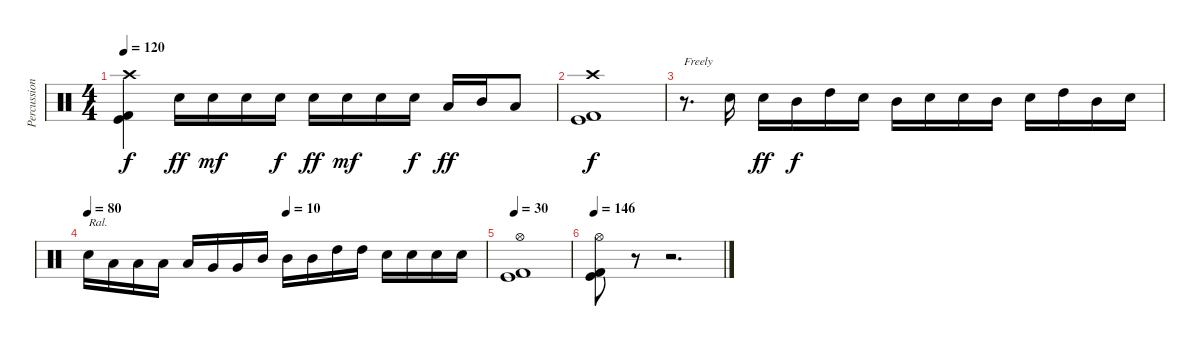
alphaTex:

\track ("Percussion" "Percussion") {instrument percussion}
\staff {score}
\articulation defaults
\ts (4 4)
\tempo 120
\clef neutral
\ks c
("Crash high (hit)" "Kick (hit) 2" "Kick (hit)").4{dy f} "Snare (hit) 2".16{dy ff} "Snare (hit) 2".16{dy mf} "Snare (hit) 2".16 "Snare (hit) 2".16{dy f} "Snare (hit) 2".16{dy ff} "Snare (hit) 2".16{dy mf} "Snare (hit) 2".16 "Snare (hit) 2".16{dy f} "Low Tom (hit)".16{dy ff} "Mid Tom (hit)".16 "Low Tom (hit)".8 |
("Crash high (hit)" "Kick (hit) 2" "Kick (hit)").1{dy f} |
r.8{d txt "Freely"} "Snare (hit) 2".16 "Snare (hit) 2".16{dy ff} "Mid Tom (hit)".16{dy f} "High Tom (hit)".16 "Snare (hit) 2".16 "Mid Tom (hit)".16 "Snare (hit) 2".16 "Snare (hit) 2".16 "Mid Tom (hit)".16 "Snare (hit) 2".16 "High Tom (hit)".16 "Mid Tom (hit)".16 "Snare (hit) 2".16 |
\tempo 80
\tempo (10 0.5)
"Snare (hit) 2".16{txt "Ral."} "Low Tom (hit)".16 "Low Tom (hit)".16 "Low Tom (hit)".16 "Low Tom (hit)".16 "Very Low Tom (hit)".16 "Very Low Tom (hit)".16 "Mid Tom (hit)".16 "Mid Tom (hit)".16 "Mid Tom (hit)".16 "High Tom (hit)".16 "High Tom (hit)".16 "Snare (hit) 2".16 "Snare (hit) 2".16 "Snare (hit) 2".16 "Snare (hit) 2".16 |
\tempo 30
("Hi-Hat (open)" "Kick (hit) 2" "Kick (hit)").1 |
\tempo 146
("Hi-Hat (open)" "Kick (hit) 2" "Kick (hit)").8{volume 13} r.8 r.2{d}
